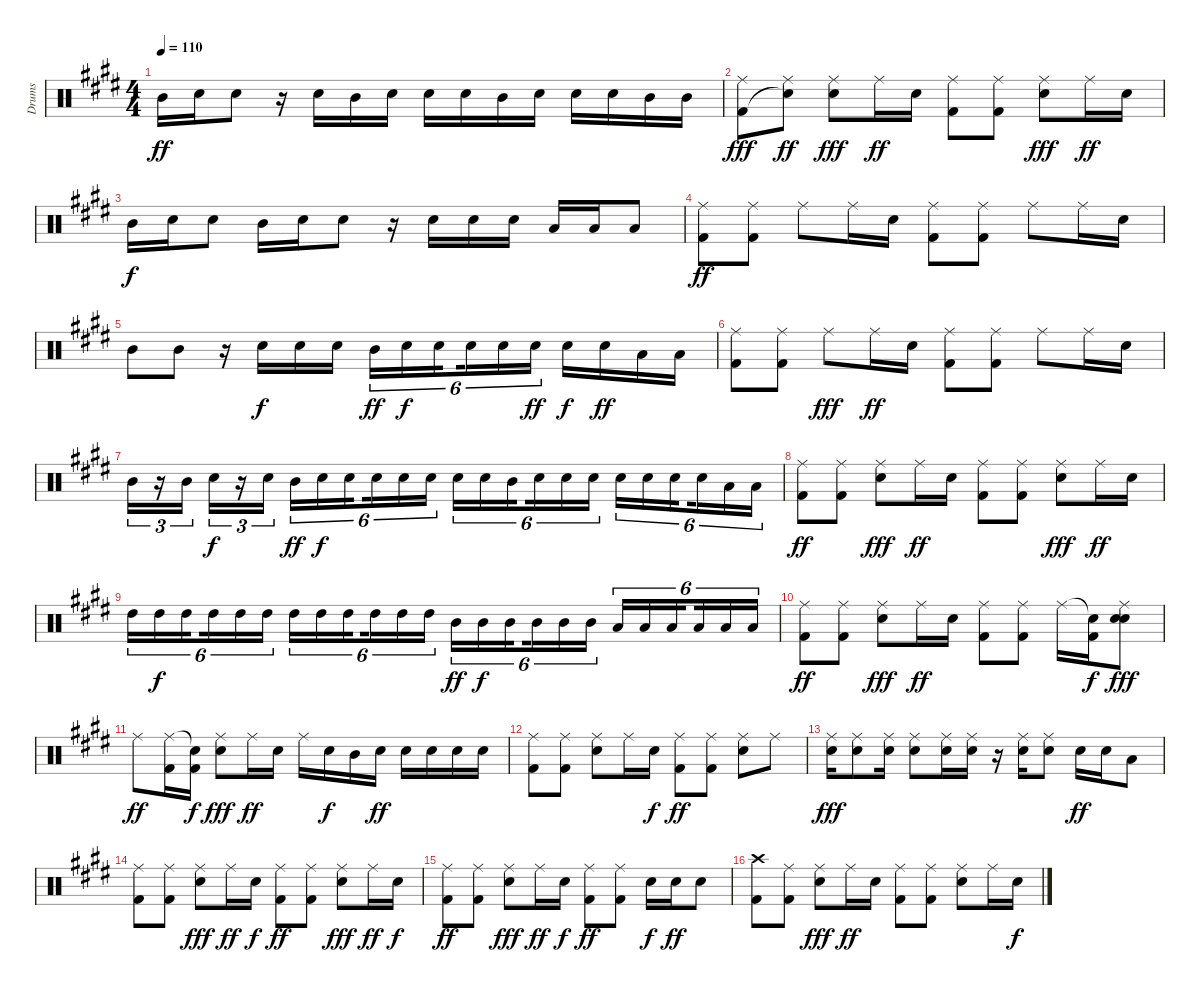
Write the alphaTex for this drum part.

\track ("Drums" "Drums") {instrument percussion}
\staff {score}
\articulation defaults
\ts (4 4)
\tempo 110
\clef neutral
\ks c#minor "Mid Tom (hit)".16{dy ff} "Electric Snare (hit)".16 "Electric Snare (hit)".8
r.16 "Electric Snare (hit)".16 "Mid Tom (hit)".16 "Electric Snare (hit)".16 "Electric Snare (hit)".16 "Electric Snare (hit)".16 "Mid Tom (hit)".16 "Electric Snare (hit)".16 "Electric Snare (hit)".16 "Electric Snare (hit)".16 "Mid Tom (hit)".16 "Mid Tom (hit)".16 |
("Ride (middle)" "Kick (hit) 2").8{dy fff} ("Ride (middle)" "Snare (hit)"{t}).8{dy ff} ("Ride (middle)" "Electric Snare (hit)").8{dy fff} "Ride (middle)".16{dy ff} "Electric Snare (hit)".16 ("Ride (middle)" "Kick (hit) 2").8 ("Ride (middle)" "Kick (hit) 2").8 ("Ride (middle)" "Electric Snare (hit)").8{dy fff} "Ride (middle)".16{dy ff} "Electric Snare (hit)".16 |
"Mid Tom (hit)".16{dy f} "Electric Snare (hit)".16 "Electric Snare (hit)".8 "Mid Tom (hit)".16 "Electric Snare (hit)".16 "Electric Snare (hit)".8 r.16 "Electric Snare (hit)".16 "Electric Snare (hit)".16 "Electric Snare (hit)".16 "Low Tom (hit)".16 "Low Tom (hit)".16 "Low Tom (hit)".8 |
("Ride (middle)" "Kick (hit) 2").8{dy ff} ("Ride (middle)" "Kick (hit) 2").8 "Ride (middle)".8 "Ride (middle)".16 "Electric Snare (hit)".16 ("Ride (middle)" "Kick (hit) 2").8 ("Ride (middle)" "Kick (hit) 2").8 "Ride (middle)".8 "Ride (middle)".16 "Electric Snare (hit)".16 |
"Mid Tom (hit)".8 "Mid Tom (hit)".8 r.16 "Electric Snare (hit)".16{dy f} "Electric Snare (hit)".16 "Electric Snare (hit)".16 "Mid Tom (hit)".16{tu (6 4) dy ff} "Electric Snare (hit)".16{tu (6 4) dy f} "Electric Snare (hit)".16{tu (6 4) beam splitsecondary} "Electric Snare (hit)".16{tu (6 4)} "Electric Snare (hit)".16{tu (6 4)} "Electric Snare (hit)".16{tu (6 4) dy ff} "Electric Snare (hit)".16{dy f} "Electric Snare (hit)".16{dy ff} "Low Tom (hit)".16 "Low Tom (hit)".16 |
("Ride (middle)" "Kick (hit) 2").8 ("Ride (middle)" "Kick (hit) 2").8 "Ride (middle)".8{dy fff} "Ride (middle)".16{dy ff} "Electric Snare (hit)".16 ("Ride (middle)" "Kick (hit) 2").8 ("Ride (middle)" "Kick (hit) 2").8 "Ride (middle)".8 "Ride (middle)".16 "Electric Snare (hit)".16 |
"Mid Tom (hit)".16{tu (3 2)} r.16{tu (3 2)} "Mid Tom (hit)".16{tu (3 2)} "Electric Snare (hit)".16{tu (3 2) dy f} r.16{tu (3 2)} "Electric Snare (hit)".16{tu (3 2)} "Mid Tom (hit)".16{tu (6 4) dy ff} "Electric Snare (hit)".16{tu (6 4) dy f} "Electric Snare (hit)".16{tu (6 4) beam splitsecondary} "Electric Snare (hit)".16{tu (6 4)} "Electric Snare (hit)".16{tu (6 4)} "Electric Snare (hit)".16{tu (6 4)} "Electric Snare (hit)".16{tu (6 4)} "Electric Snare (hit)".16{tu (6 4)} "Mid Tom (hit)".16{tu (6 4) beam splitsecondary} "Electric Snare (hit)".16{tu (6 4)} "Electric Snare (hit)".16{tu (6 4)} "Electric Snare (hit)".16{tu (6 4)} "Electric Snare (hit)".16{tu (6 4)} "Electric Snare (hit)".16{tu (6 4)} "Electric Snare (hit)".16{tu (6 4) beam splitsecondary} "Electric Snare (hit)".16{tu (6 4)} "Low Tom (hit)".16{tu (6 4)} "Low Tom (hit)".16{tu (6 4)} |
("Ride (middle)" "Kick (hit) 2").8{dy ff} ("Ride (middle)" "Kick (hit) 2").8 ("Ride (middle)" "Electric Snare (hit)").8{dy fff} "Ride (middle)".16{dy ff} "Electric Snare (hit)".16 ("Ride (middle)" "Kick (hit) 2").8 ("Ride (middle)" "Kick (hit) 2").8 ("Ride (middle)" "Electric Snare (hit)").8{dy fff} "Ride (middle)".16{dy ff} "Electric Snare (hit)".16 |
"High Tom (hit)".16{tu (6 4)} "High Tom (hit)".16{tu (6 4) dy f} "High Tom (hit)".16{tu (6 4) beam splitsecondary} "High Tom (hit)".16{tu (6 4)} "High Tom (hit)".16{tu (6 4)} "High Tom (hit)".16{tu (6 4)} "High Tom (hit)".16{tu (6 4)} "High Tom (hit)".16{tu (6 4)} "High Tom (hit)".16{tu (6 4) beam splitsecondary} "High Tom (hit)".16{tu (6 4)} "High Tom (hit)".16{tu (6 4)} "High Tom (hit)".16{tu (6 4)} "Mid Tom (hit)".16{tu (6 4) dy ff} "Mid Tom (hit)".16{tu (6 4) dy f} "Mid Tom (hit)".16{tu (6 4) beam splitsecondary} "Mid Tom (hit)".16{tu (6 4)} "Mid Tom (hit)".16{tu (6 4)} "Mid Tom (hit)".16{tu (6 4)} "Low Tom (hit)".16{tu (6 4)} "Low Tom (hit)".16{tu (6 4)} "Low Tom (hit)".16{tu (6 4) beam splitsecondary} "Low Tom (hit)".16{tu (6 4)} "Low Tom (hit)".16{tu (6 4)} "Low Tom (hit)".16{tu (6 4)} |
("Ride (middle)" "Kick (hit) 2").8{dy ff} ("Ride (middle)" "Kick (hit) 2").8 ("Ride (middle)" "Electric Snare (hit)").8{dy fff} "Ride (middle)".16{dy ff} "Electric Snare (hit)".16 ("Ride (middle)" "Kick (hit) 2").8 ("Ride (middle)" "Kick (hit) 2").8 "Ride (middle)".16 ("Snare (hit)"{t} "Kick (hit) 2").16{dy f} ("Ride (middle)" "Electric Snare (hit)" "Snare (hit)").8{dy fff} |
"Ride (middle)".8{dy ff} ("Ride (middle)" "Kick (hit) 2").16 ("Snare (hit)"{t} "Kick (hit) 2").16{dy f} ("Ride (middle)" "Electric Snare (hit)").8{dy fff} "Ride (middle)".16{dy ff} "Electric Snare (hit)".16 "Ride (middle)".16 "Electric Snare (hit)".16{dy f} "Mid Tom (hit)".16 "Electric Snare (hit)".16{dy ff} "Electric Snare (hit)".16 "Electric Snare (hit)".16 "Electric Snare (hit)".16 "Electric Snare (hit)".16 |
("Ride (middle)" "Kick (hit) 2").8 ("Ride (middle)" "Kick (hit) 2").8 ("Ride (middle)" "Electric Snare (hit)").8 "Ride (middle)".16 "Electric Snare (hit)".16{dy f} ("Ride (middle)" "Kick (hit) 2").8{dy ff} ("Ride (middle)" "Kick (hit) 2").8 ("Ride (middle)" "Electric Snare (hit)").8 "Ride (middle)".8 |
("Ride (middle)" "Electric Snare (hit)").16{dy fff} ("Ride (middle)" "Electric Snare (hit)").8 ("Ride (middle)" "Electric Snare (hit)").16 ("Ride (middle)" "Electric Snare (hit)").8 ("Ride (middle)" "Electric Snare (hit)").16 ("Ride (middle)" "Electric Snare (hit)").16 r.16 ("Ride (middle)" "Electric Snare (hit)").16 ("Ride (middle)" "Electric Snare (hit)").8 "Electric Snare (hit)".16{dy ff} "Electric Snare (hit)".16 "Low Tom (hit)".8 |
("Ride (middle)" "Kick (hit) 2").8 ("Ride (middle)" "Kick (hit) 2").8 ("Ride (middle)" "Electric Snare (hit)").8{dy fff} "Ride (middle)".16{dy ff} "Electric Snare (hit)".16{dy f} ("Ride (middle)" "Kick (hit) 2").8{dy ff} ("Ride (middle)" "Kick (hit) 2").8 ("Ride (middle)" "Electric Snare (hit)").8{dy fff} "Ride (middle)".16{dy ff} "Electric Snare (hit)".16{dy f} |
("Ride (middle)" "Kick (hit) 2").8{dy ff} ("Ride (middle)" "Kick (hit) 2").8 ("Ride (middle)" "Electric Snare (hit)").8{dy fff} "Ride (middle)".16{dy ff} "Electric Snare (hit)".16{dy f} ("Ride (middle)" "Kick (hit) 2").8{dy ff} ("Ride (middle)" "Kick (hit) 2").8 "Electric Snare (hit)".16{dy f} "Electric Snare (hit)".16{dy ff} "Electric Snare (hit)".8 |
("Crash high (hit)" "Kick (hit) 2").8{volume 8} ("Ride (middle)" "Kick (hit) 2").8 ("Ride (middle)" "Electric Snare (hit)").8{dy fff} "Ride (middle)".16{dy ff} "Electric Snare (hit)".16 ("Ride (middle)" "Kick (hit) 2").8 ("Ride (middle)" "Kick (hit) 2").8 ("Ride (middle)" "Electric Snare (hit)").8 "Ride (middle)".16 "Electric Snare (hit)".16{dy f}
